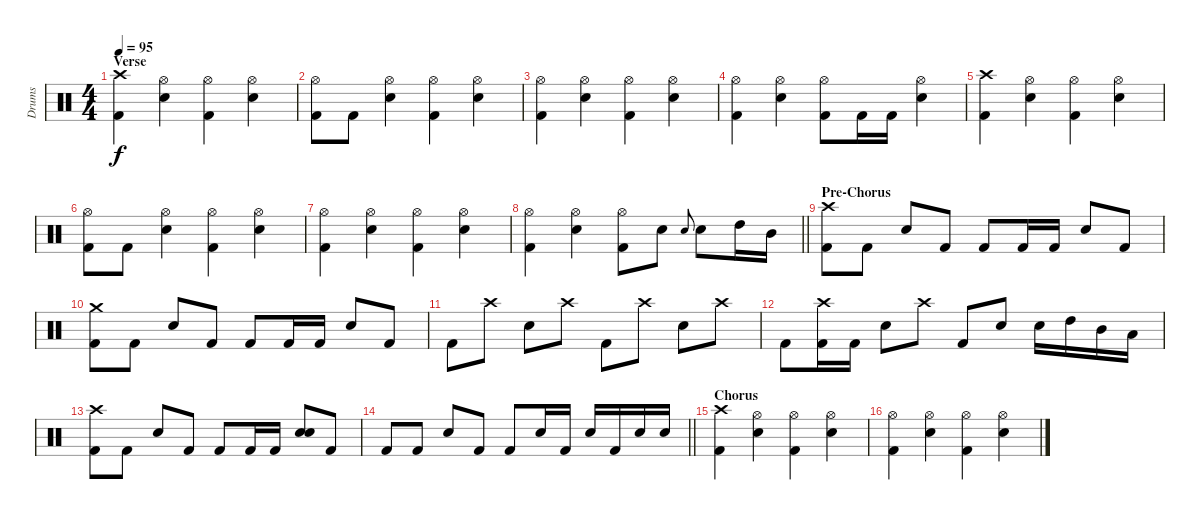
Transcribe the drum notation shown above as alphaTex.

\track ("Drums" "Drums") {instrument percussion}
\staff {score}
\articulation defaults
\ts (4 4)
\section ("" "Verse")
\tempo 95
\clef neutral
\ks c
("Crash high (hit)" "Kick (hit) 2").4{dy f} ("Hi-Hat (open)" "Electric Snare (hit)").4 ("Hi-Hat (open)" "Kick (hit) 2").4 ("Hi-Hat (open)" "Electric Snare (hit)").4 |
("Hi-Hat (open)" "Kick (hit) 2").8 "Kick (hit) 2".8 ("Hi-Hat (open)" "Electric Snare (hit)").4 ("Hi-Hat (open)" "Kick (hit) 2").4 ("Hi-Hat (open)" "Electric Snare (hit)").4 |
("Hi-Hat (open)" "Kick (hit) 2").4 ("Hi-Hat (open)" "Electric Snare (hit)").4 ("Hi-Hat (open)" "Kick (hit) 2").4 ("Hi-Hat (open)" "Electric Snare (hit)").4 |
("Hi-Hat (open)" "Kick (hit) 2").4 ("Hi-Hat (open)" "Electric Snare (hit)").4 ("Hi-Hat (open)" "Kick (hit) 2").8 "Kick (hit) 2".16 "Kick (hit) 2".16 ("Hi-Hat (open)" "Electric Snare (hit)").4 |
("Crash high (hit)" "Kick (hit) 2").4 ("Hi-Hat (open)" "Electric Snare (hit)").4 ("Hi-Hat (open)" "Kick (hit) 2").4 ("Hi-Hat (open)" "Electric Snare (hit)").4 |
("Hi-Hat (open)" "Kick (hit) 2").8 "Kick (hit) 2".8 ("Hi-Hat (open)" "Electric Snare (hit)").4 ("Hi-Hat (open)" "Kick (hit) 2").4 ("Hi-Hat (open)" "Electric Snare (hit)").4 |
("Hi-Hat (open)" "Kick (hit) 2").4 ("Hi-Hat (open)" "Electric Snare (hit)").4 ("Hi-Hat (open)" "Kick (hit) 2").4 ("Hi-Hat (open)" "Electric Snare (hit)").4 |
\barLineRight lightlight
("Hi-Hat (open)" "Kick (hit) 2").4 ("Hi-Hat (open)" "Electric Snare (hit)").4 ("Hi-Hat (open)" "Kick (hit) 2").8 "Electric Snare (hit)".8 "Electric Snare (hit)".8{gr onbeat} "Electric Snare (hit)".8 "High Tom (hit)".16 "Mid Tom (hit)".16 |
\section ("" "Pre-Chorus")
("Crash high (hit)" "Kick (hit) 2").8 "Kick (hit) 2".8 "Electric Snare (hit)".8 "Kick (hit) 2".8 "Kick (hit) 2".8 "Kick (hit) 2".16 "Kick (hit) 2".16 "Electric Snare (hit)".8 "Kick (hit) 2".8 |
("Crash medium (hit)" "Kick (hit) 2").8 "Kick (hit) 2".8 "Electric Snare (hit)".8 "Kick (hit) 2".8 "Kick (hit) 2".8 "Kick (hit) 2".16 "Kick (hit) 2".16 "Electric Snare (hit)".8 "Kick (hit) 2".8 |
"Kick (hit) 2".8 "Crash high (hit)".8 "Electric Snare (hit)".8 "Crash high (hit)".8 "Kick (hit) 2".8 "Crash high (hit)".8 "Electric Snare (hit)".8 "Crash high (hit)".8 |
"Kick (hit) 2".8 ("Crash high (hit)" "Kick (hit) 2").16 "Kick (hit) 2".16 "Electric Snare (hit)".8 "Crash high (hit)".8 "Kick (hit) 2".8 "Electric Snare (hit)".8 "Electric Snare (hit)".16 "High Tom (hit)".16 "Mid Tom (hit)".16 "Low Tom (hit)".16 |
("Crash high (hit)" "Kick (hit) 2").8 "Kick (hit) 2".8 "Electric Snare (hit)".8 "Kick (hit) 2".8 "Kick (hit) 2".8 "Kick (hit) 2".16 "Kick (hit) 2".16 ("Electric Snare (hit)" "Electric Snare (hit)").8{bd 60} "Kick (hit) 2".8 |
\barLineRight lightlight "Kick (hit) 2".8 "Kick (hit) 2".8 "Electric Snare (hit)".8 "Kick (hit) 2".8 "Kick (hit) 2".8 "Electric Snare (hit)".16 "Kick (hit) 2".16 "Electric Snare (hit)".16 "Kick (hit) 2".16 "Electric Snare (hit)".16 "Electric Snare (hit)".16
|
\section ("" "Chorus")
("Crash high (hit)" "Kick (hit) 2").4 ("Hi-Hat (open)" "Electric Snare (hit)").4 ("Hi-Hat (open)" "Kick (hit) 2").4 ("Hi-Hat (open)" "Electric Snare (hit)").4 |
("Hi-Hat (open)" "Kick (hit) 2").4 ("Hi-Hat (open)" "Electric Snare (hit)").4 ("Hi-Hat (open)" "Kick (hit) 2").4 ("Hi-Hat (open)" "Electric Snare (hit)").4
